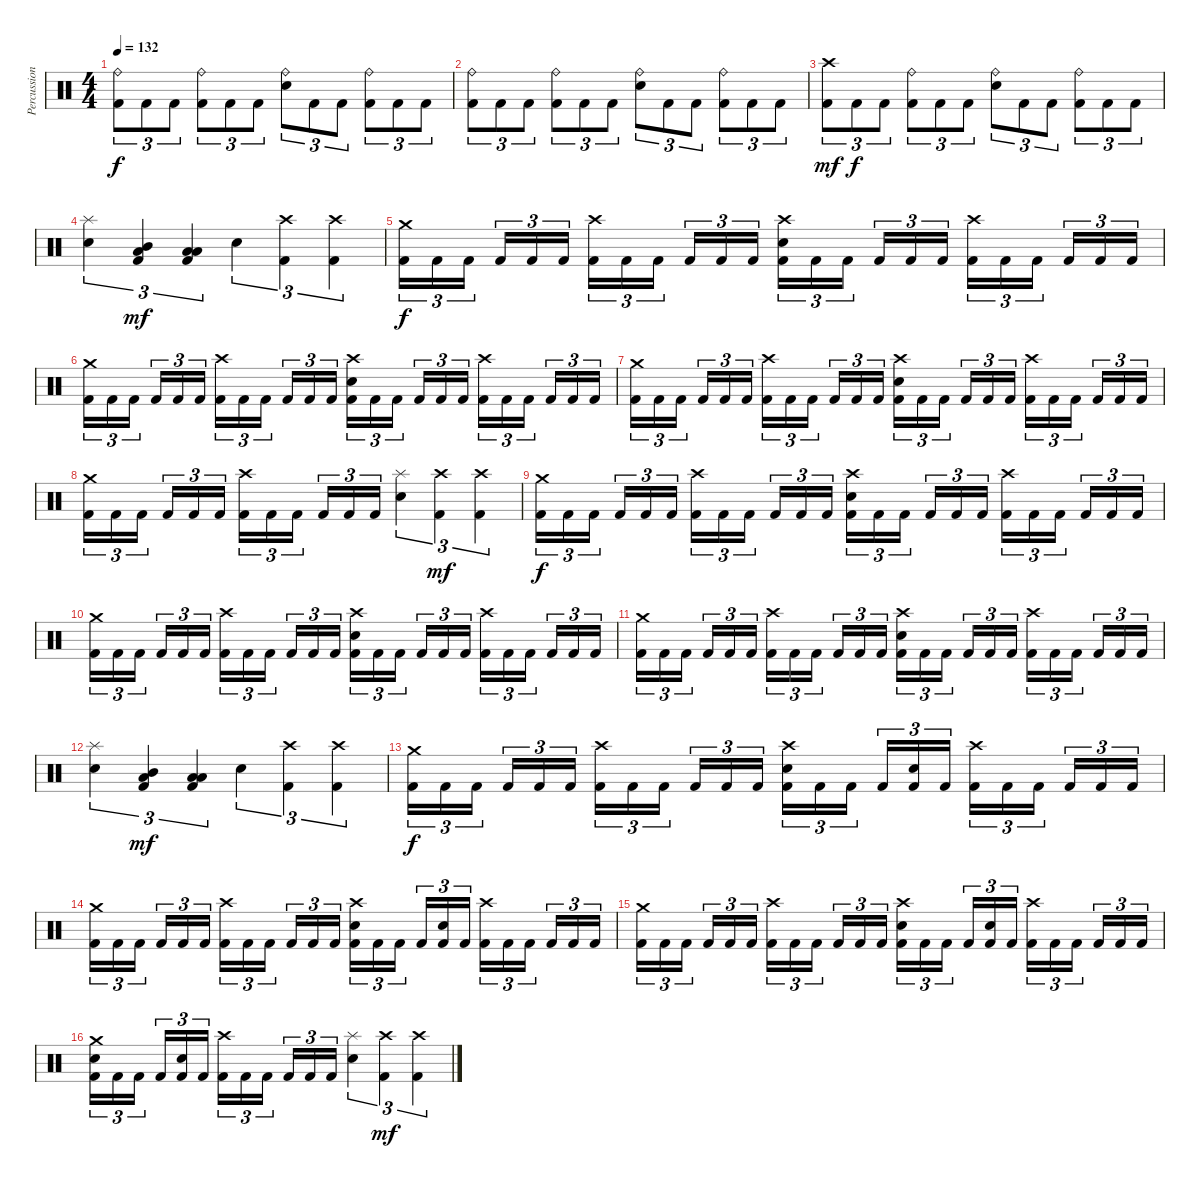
\track ("Percussion" "Percussion") {instrument percussion}
\staff {score}
\articulation defaults
\ts (4 4)
\tempo 132
\clef neutral
\ks c
("Ride (bell)" "Kick (hit) 2").8{tu (3 2) dy f} "Kick (hit) 2".8{tu (3 2)} "Kick (hit) 2".8{tu (3 2)} ("Ride (bell)" "Kick (hit) 2").8{tu (3 2)} "Kick (hit) 2".8{tu (3 2)} "Kick (hit) 2".8{tu (3 2)} ("Ride (bell)" "Snare (hit) 2").8{tu (3 2)} "Kick (hit) 2".8{tu (3 2)} "Kick (hit) 2".8{tu (3 2)} ("Ride (bell)" "Kick (hit) 2").8{tu (3 2)} "Kick (hit) 2".8{tu (3 2)} "Kick (hit) 2".8{tu (3 2)} |
("Ride (bell)" "Kick (hit) 2").8{tu (3 2)} "Kick (hit) 2".8{tu (3 2)} "Kick (hit) 2".8{tu (3 2)} ("Ride (bell)" "Kick (hit) 2").8{tu (3 2)} "Kick (hit) 2".8{tu (3 2)} "Kick (hit) 2".8{tu (3 2)} ("Ride (bell)" "Snare (hit) 2").8{tu (3 2)} "Kick (hit) 2".8{tu (3 2)} "Kick (hit) 2".8{tu (3 2)} ("Ride (bell)" "Kick (hit) 2").8{tu (3 2)} "Kick (hit) 2".8{tu (3 2)} "Kick (hit) 2".8{tu (3 2)} |
("Crash high (hit)" "Kick (hit) 2").8{tu (3 2) dy mf} "Kick (hit) 2".8{tu (3 2) dy f} "Kick (hit) 2".8{tu (3 2)} ("Ride (bell)" "Kick (hit) 2").8{tu (3 2)} "Kick (hit) 2".8{tu (3 2)} "Kick (hit) 2".8{tu (3 2)} ("Ride (bell)" "Snare (hit) 2").8{tu (3 2)} "Kick (hit) 2".8{tu (3 2)} "Kick (hit) 2".8{tu (3 2)} ("Ride (bell)" "Kick (hit) 2").8{tu (3 2)} "Kick (hit) 2".8{tu (3 2)} "Kick (hit) 2".8{tu (3 2)} |
("Splash (hit)" "Snare (hit) 2").4{tu (3 2)} ("Mid Tom (hit)" "Low Tom (hit)" "Kick (hit) 2").4{tu (3 2) dy mf} ("Low Tom (hit)" "Low Floor Tom (hit)" "Kick (hit) 2").4{tu (3 2)} "Snare (hit) 2".4{tu (3 2)} ("Crash high (hit)" "Kick (hit) 2").4{tu (3 2)} ("Crash high (hit)" "Kick (hit) 2").4{tu (3 2)} |
("Crash medium (hit)" "Kick (hit) 2").16{tu (3 2) dy f} "Kick (hit) 2".16{tu (3 2)} "Kick (hit) 2".16{tu (3 2) beam splitsecondary} "Kick (hit) 2".16{tu (3 2)} "Kick (hit) 2".16{tu (3 2)} "Kick (hit) 2".16{tu (3 2)} ("Crash high (hit)" "Kick (hit) 2").16{tu (3 2)} "Kick (hit) 2".16{tu (3 2)} "Kick (hit) 2".16{tu (3 2) beam splitsecondary} "Kick (hit) 2".16{tu (3 2)} "Kick (hit) 2".16{tu (3 2)} "Kick (hit) 2".16{tu (3 2)} ("Crash high (hit)" "Snare (hit) 2" "Kick (hit) 2").16{tu (3 2)} "Kick (hit) 2".16{tu (3 2)} "Kick (hit) 2".16{tu (3 2) beam splitsecondary} "Kick (hit) 2".16{tu (3 2)} "Kick (hit) 2".16{tu (3 2)} "Kick (hit) 2".16{tu (3 2)} ("Crash high (hit)" "Kick (hit) 2").16{tu (3 2)} "Kick (hit) 2".16{tu (3 2)} "Kick (hit) 2".16{tu (3 2) beam splitsecondary} "Kick (hit) 2".16{tu (3 2)} "Kick (hit) 2".16{tu (3 2)} "Kick (hit) 2".16{tu (3 2)} |
("Crash medium (hit)" "Kick (hit) 2").16{tu (3 2)} "Kick (hit) 2".16{tu (3 2)} "Kick (hit) 2".16{tu (3 2) beam splitsecondary} "Kick (hit) 2".16{tu (3 2)} "Kick (hit) 2".16{tu (3 2)} "Kick (hit) 2".16{tu (3 2)} ("Crash high (hit)" "Kick (hit) 2").16{tu (3 2)} "Kick (hit) 2".16{tu (3 2)} "Kick (hit) 2".16{tu (3 2) beam splitsecondary} "Kick (hit) 2".16{tu (3 2)} "Kick (hit) 2".16{tu (3 2)} "Kick (hit) 2".16{tu (3 2)} ("Crash high (hit)" "Snare (hit) 2" "Kick (hit) 2").16{tu (3 2)} "Kick (hit) 2".16{tu (3 2)} "Kick (hit) 2".16{tu (3 2) beam splitsecondary} "Kick (hit) 2".16{tu (3 2)} "Kick (hit) 2".16{tu (3 2)} "Kick (hit) 2".16{tu (3 2)} ("Crash high (hit)" "Kick (hit) 2").16{tu (3 2)} "Kick (hit) 2".16{tu (3 2)} "Kick (hit) 2".16{tu (3 2) beam splitsecondary} "Kick (hit) 2".16{tu (3 2)} "Kick (hit) 2".16{tu (3 2)} "Kick (hit) 2".16{tu (3 2)} |
("Crash medium (hit)" "Kick (hit) 2").16{tu (3 2)} "Kick (hit) 2".16{tu (3 2)} "Kick (hit) 2".16{tu (3 2) beam splitsecondary} "Kick (hit) 2".16{tu (3 2)} "Kick (hit) 2".16{tu (3 2)} "Kick (hit) 2".16{tu (3 2)} ("Crash high (hit)" "Kick (hit) 2").16{tu (3 2)} "Kick (hit) 2".16{tu (3 2)} "Kick (hit) 2".16{tu (3 2) beam splitsecondary} "Kick (hit) 2".16{tu (3 2)} "Kick (hit) 2".16{tu (3 2)} "Kick (hit) 2".16{tu (3 2)} ("Crash high (hit)" "Snare (hit) 2" "Kick (hit) 2").16{tu (3 2)} "Kick (hit) 2".16{tu (3 2)} "Kick (hit) 2".16{tu (3 2) beam splitsecondary} "Kick (hit) 2".16{tu (3 2)} "Kick (hit) 2".16{tu (3 2)} "Kick (hit) 2".16{tu (3 2)} ("Crash high (hit)" "Kick (hit) 2").16{tu (3 2)} "Kick (hit) 2".16{tu (3 2)} "Kick (hit) 2".16{tu (3 2) beam splitsecondary} "Kick (hit) 2".16{tu (3 2)} "Kick (hit) 2".16{tu (3 2)} "Kick (hit) 2".16{tu (3 2)} |
("Crash medium (hit)" "Kick (hit) 2").16{tu (3 2)} "Kick (hit) 2".16{tu (3 2)} "Kick (hit) 2".16{tu (3 2) beam splitsecondary} "Kick (hit) 2".16{tu (3 2)} "Kick (hit) 2".16{tu (3 2)} "Kick (hit) 2".16{tu (3 2)} ("Crash high (hit)" "Kick (hit) 2").16{tu (3 2)} "Kick (hit) 2".16{tu (3 2)} "Kick (hit) 2".16{tu (3 2) beam splitsecondary} "Kick (hit) 2".16{tu (3 2)} "Kick (hit) 2".16{tu (3 2)} "Kick (hit) 2".16{tu (3 2)} ("Splash (hit)" "Snare (hit) 2").4{tu (3 2)} ("Crash high (hit)" "Kick (hit) 2").4{tu (3 2) dy mf} ("Crash high (hit)" "Kick (hit) 2").4{tu (3 2)} |
("Crash medium (hit)" "Kick (hit) 2").16{tu (3 2) dy f} "Kick (hit) 2".16{tu (3 2)} "Kick (hit) 2".16{tu (3 2) beam splitsecondary} "Kick (hit) 2".16{tu (3 2)} "Kick (hit) 2".16{tu (3 2)} "Kick (hit) 2".16{tu (3 2)} ("Crash high (hit)" "Kick (hit) 2").16{tu (3 2)} "Kick (hit) 2".16{tu (3 2)} "Kick (hit) 2".16{tu (3 2) beam splitsecondary} "Kick (hit) 2".16{tu (3 2)} "Kick (hit) 2".16{tu (3 2)} "Kick (hit) 2".16{tu (3 2)} ("Crash high (hit)" "Snare (hit) 2" "Kick (hit) 2").16{tu (3 2)} "Kick (hit) 2".16{tu (3 2)} "Kick (hit) 2".16{tu (3 2) beam splitsecondary} "Kick (hit) 2".16{tu (3 2)} "Kick (hit) 2".16{tu (3 2)} "Kick (hit) 2".16{tu (3 2)} ("Crash high (hit)" "Kick (hit) 2").16{tu (3 2)} "Kick (hit) 2".16{tu (3 2)} "Kick (hit) 2".16{tu (3 2) beam splitsecondary} "Kick (hit) 2".16{tu (3 2)} "Kick (hit) 2".16{tu (3 2)} "Kick (hit) 2".16{tu (3 2)} |
("Crash medium (hit)" "Kick (hit) 2").16{tu (3 2)} "Kick (hit) 2".16{tu (3 2)} "Kick (hit) 2".16{tu (3 2) beam splitsecondary} "Kick (hit) 2".16{tu (3 2)} "Kick (hit) 2".16{tu (3 2)} "Kick (hit) 2".16{tu (3 2)} ("Crash high (hit)" "Kick (hit) 2").16{tu (3 2)} "Kick (hit) 2".16{tu (3 2)} "Kick (hit) 2".16{tu (3 2) beam splitsecondary} "Kick (hit) 2".16{tu (3 2)} "Kick (hit) 2".16{tu (3 2)} "Kick (hit) 2".16{tu (3 2)} ("Crash high (hit)" "Snare (hit) 2" "Kick (hit) 2").16{tu (3 2)} "Kick (hit) 2".16{tu (3 2)} "Kick (hit) 2".16{tu (3 2) beam splitsecondary} "Kick (hit) 2".16{tu (3 2)} "Kick (hit) 2".16{tu (3 2)} "Kick (hit) 2".16{tu (3 2)} ("Crash high (hit)" "Kick (hit) 2").16{tu (3 2)} "Kick (hit) 2".16{tu (3 2)} "Kick (hit) 2".16{tu (3 2) beam splitsecondary} "Kick (hit) 2".16{tu (3 2)} "Kick (hit) 2".16{tu (3 2)} "Kick (hit) 2".16{tu (3 2)} |
("Crash medium (hit)" "Kick (hit) 2").16{tu (3 2)} "Kick (hit) 2".16{tu (3 2)} "Kick (hit) 2".16{tu (3 2) beam splitsecondary} "Kick (hit) 2".16{tu (3 2)} "Kick (hit) 2".16{tu (3 2)} "Kick (hit) 2".16{tu (3 2)} ("Crash high (hit)" "Kick (hit) 2").16{tu (3 2)} "Kick (hit) 2".16{tu (3 2)} "Kick (hit) 2".16{tu (3 2) beam splitsecondary} "Kick (hit) 2".16{tu (3 2)} "Kick (hit) 2".16{tu (3 2)} "Kick (hit) 2".16{tu (3 2)} ("Crash high (hit)" "Snare (hit) 2" "Kick (hit) 2").16{tu (3 2)} "Kick (hit) 2".16{tu (3 2)} "Kick (hit) 2".16{tu (3 2) beam splitsecondary} "Kick (hit) 2".16{tu (3 2)} "Kick (hit) 2".16{tu (3 2)} "Kick (hit) 2".16{tu (3 2)} ("Crash high (hit)" "Kick (hit) 2").16{tu (3 2)} "Kick (hit) 2".16{tu (3 2)} "Kick (hit) 2".16{tu (3 2) beam splitsecondary} "Kick (hit) 2".16{tu (3 2)} "Kick (hit) 2".16{tu (3 2)} "Kick (hit) 2".16{tu (3 2)} |
("Splash (hit)" "Snare (hit) 2").4{tu (3 2)} ("Mid Tom (hit)" "Low Tom (hit)" "Kick (hit) 2").4{tu (3 2) dy mf} ("Low Tom (hit)" "Low Floor Tom (hit)" "Kick (hit) 2").4{tu (3 2)} "Snare (hit) 2".4{tu (3 2)} ("Crash high (hit)" "Kick (hit) 2").4{tu (3 2)} ("Crash high (hit)" "Kick (hit) 2").4{tu (3 2)} |
("Crash medium (hit)" "Kick (hit) 2").16{tu (3 2) dy f} "Kick (hit) 2".16{tu (3 2)} "Kick (hit) 2".16{tu (3 2) beam splitsecondary} "Kick (hit) 2".16{tu (3 2)} "Kick (hit) 2".16{tu (3 2)} "Kick (hit) 2".16{tu (3 2)} ("Crash high (hit)" "Kick (hit) 2").16{tu (3 2)} "Kick (hit) 2".16{tu (3 2)} "Kick (hit) 2".16{tu (3 2) beam splitsecondary} "Kick (hit) 2".16{tu (3 2)} "Kick (hit) 2".16{tu (3 2)} "Kick (hit) 2".16{tu (3 2)} ("Crash high (hit)" "Snare (hit) 2" "Kick (hit) 2").16{tu (3 2)} "Kick (hit) 2".16{tu (3 2)} "Kick (hit) 2".16{tu (3 2) beam splitsecondary} "Kick (hit) 2".16{tu (3 2)} ("Snare (hit) 2" "Kick (hit) 2").16{tu (3 2)} "Kick (hit) 2".16{tu (3 2)} ("Crash high (hit)" "Kick (hit) 2").16{tu (3 2)} "Kick (hit) 2".16{tu (3 2)} "Kick (hit) 2".16{tu (3 2) beam splitsecondary} "Kick (hit) 2".16{tu (3 2)} "Kick (hit) 2".16{tu (3 2)} "Kick (hit) 2".16{tu (3 2)} |
("Crash medium (hit)" "Kick (hit) 2").16{tu (3 2)} "Kick (hit) 2".16{tu (3 2)} "Kick (hit) 2".16{tu (3 2) beam splitsecondary} "Kick (hit) 2".16{tu (3 2)} "Kick (hit) 2".16{tu (3 2)} "Kick (hit) 2".16{tu (3 2)} ("Crash high (hit)" "Kick (hit) 2").16{tu (3 2)} "Kick (hit) 2".16{tu (3 2)} "Kick (hit) 2".16{tu (3 2) beam splitsecondary} "Kick (hit) 2".16{tu (3 2)} "Kick (hit) 2".16{tu (3 2)} "Kick (hit) 2".16{tu (3 2)} ("Crash high (hit)" "Snare (hit) 2" "Kick (hit) 2").16{tu (3 2)} "Kick (hit) 2".16{tu (3 2)} "Kick (hit) 2".16{tu (3 2) beam splitsecondary} "Kick (hit) 2".16{tu (3 2)} ("Snare (hit) 2" "Kick (hit) 2").16{tu (3 2)} "Kick (hit) 2".16{tu (3 2)} ("Crash high (hit)" "Kick (hit) 2").16{tu (3 2)} "Kick (hit) 2".16{tu (3 2)} "Kick (hit) 2".16{tu (3 2) beam splitsecondary} "Kick (hit) 2".16{tu (3 2)} "Kick (hit) 2".16{tu (3 2)} "Kick (hit) 2".16{tu (3 2)} |
("Crash medium (hit)" "Kick (hit) 2").16{tu (3 2)} "Kick (hit) 2".16{tu (3 2)} "Kick (hit) 2".16{tu (3 2) beam splitsecondary} "Kick (hit) 2".16{tu (3 2)} "Kick (hit) 2".16{tu (3 2)} "Kick (hit) 2".16{tu (3 2)} ("Crash high (hit)" "Kick (hit) 2").16{tu (3 2)} "Kick (hit) 2".16{tu (3 2)} "Kick (hit) 2".16{tu (3 2) beam splitsecondary} "Kick (hit) 2".16{tu (3 2)} "Kick (hit) 2".16{tu (3 2)} "Kick (hit) 2".16{tu (3 2)} ("Crash high (hit)" "Snare (hit) 2" "Kick (hit) 2").16{tu (3 2)} "Kick (hit) 2".16{tu (3 2)} "Kick (hit) 2".16{tu (3 2) beam splitsecondary} "Kick (hit) 2".16{tu (3 2)} ("Snare (hit) 2" "Kick (hit) 2").16{tu (3 2)} "Kick (hit) 2".16{tu (3 2)} ("Crash high (hit)" "Kick (hit) 2").16{tu (3 2)} "Kick (hit) 2".16{tu (3 2)} "Kick (hit) 2".16{tu (3 2) beam splitsecondary} "Kick (hit) 2".16{tu (3 2)} "Kick (hit) 2".16{tu (3 2)} "Kick (hit) 2".16{tu (3 2)} |
("Crash medium (hit)" "Snare (hit) 2" "Kick (hit) 2").16{tu (3 2)} "Kick (hit) 2".16{tu (3 2)} "Kick (hit) 2".16{tu (3 2) beam splitsecondary} "Kick (hit) 2".16{tu (3 2)} ("Snare (hit) 2" "Kick (hit) 2").16{tu (3 2)} "Kick (hit) 2".16{tu (3 2)} ("Crash high (hit)" "Kick (hit) 2").16{tu (3 2)} "Kick (hit) 2".16{tu (3 2)} "Kick (hit) 2".16{tu (3 2) beam splitsecondary} "Kick (hit) 2".16{tu (3 2)} "Kick (hit) 2".16{tu (3 2)} "Kick (hit) 2".16{tu (3 2)} ("Splash (hit)" "Snare (hit) 2").4{tu (3 2)} ("Crash high (hit)" "Kick (hit) 2").4{tu (3 2) dy mf} ("Crash high (hit)" "Kick (hit) 2").4{tu (3 2)}
